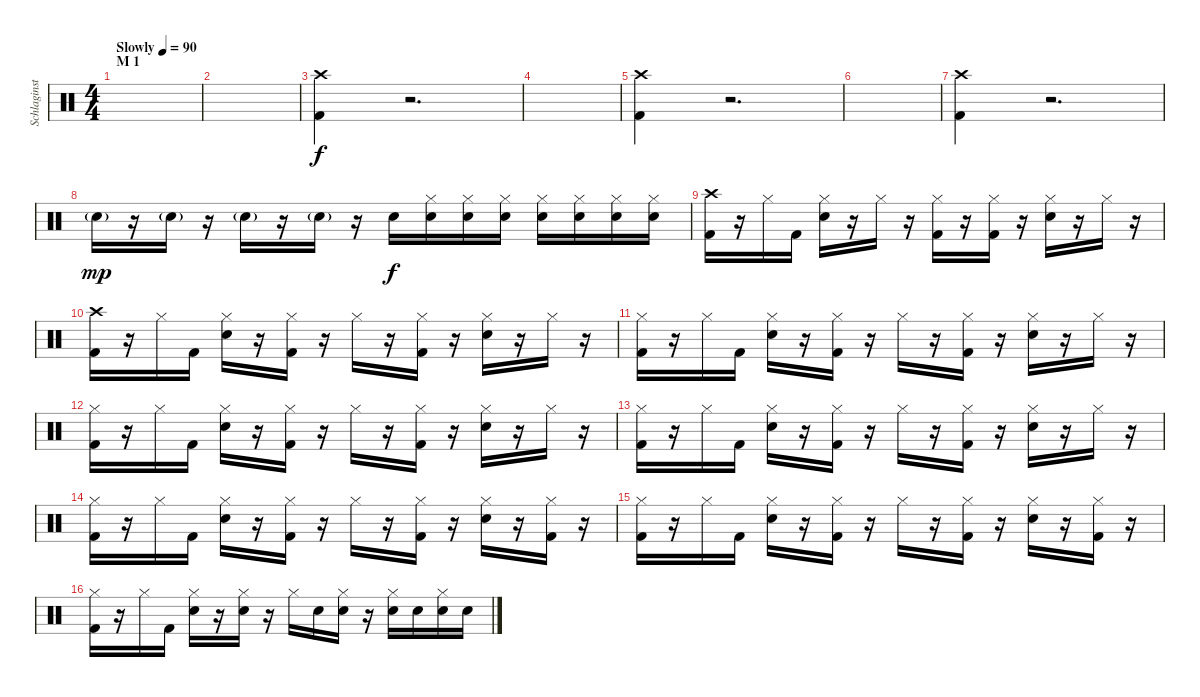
\track ("Schlaginstrumente - Auswahl" "Schlaginst") {instrument percussion}
\staff {score}
\articulation defaults
\ts (4 4)
\section ("" "M 1")
\tempo (90 "Slowly")
\clef neutral
\ks c
|
|
("Crash high (hit)" "Kick (hit) 2").4 r.2{d} |
|
("Crash high (hit)" "Kick (hit) 2").4 r.2{d} |
|
("Crash high (hit)" "Kick (hit) 2").4 r.2{d} |
"Snare (hit) 2"{g}.16{dy mp} r.16 "Snare (hit) 2"{g}.16 r.16 "Snare (hit) 2"{g}.16 r.16 "Snare (hit) 2"{g}.16 r.16 "Snare (hit) 2".16{dy f} ("Hi-Hat (closed)" "Snare (hit) 2").16 ("Hi-Hat (closed)" "Snare (hit) 2").16 ("Hi-Hat (closed)" "Snare (hit) 2").16 ("Hi-Hat (closed)" "Snare (hit) 2").16 ("Hi-Hat (closed)" "Snare (hit) 2").16 ("Hi-Hat (closed)" "Snare (hit) 2").16 ("Hi-Hat (closed)" "Snare (hit) 2").16 |
("Crash high (hit)" "Kick (hit) 2").16 r.16 "Hi-Hat (closed)".16 "Kick (hit) 2".16 ("Hi-Hat (closed)" "Snare (hit) 2").16 r.16 "Hi-Hat (closed)".16 r.16 ("Hi-Hat (closed)" "Kick (hit) 2").16 r.16 ("Hi-Hat (closed)" "Kick (hit) 2").16 r.16 ("Hi-Hat (closed)" "Snare (hit) 2").16 r.16 "Hi-Hat (closed)".16 r.16 |
("Crash high (hit)" "Kick (hit) 2").16 r.16 "Hi-Hat (closed)".16 "Kick (hit) 2".16 ("Hi-Hat (closed)" "Snare (hit) 2").16 r.16 ("Hi-Hat (closed)" "Kick (hit) 2").16 r.16 "Hi-Hat (closed)".16 r.16 ("Hi-Hat (closed)" "Kick (hit) 2").16 r.16 ("Hi-Hat (closed)" "Snare (hit) 2").16 r.16 "Hi-Hat (closed)".16 r.16 |
("Hi-Hat (closed)" "Kick (hit) 2").16 r.16 "Hi-Hat (closed)".16 "Kick (hit) 2".16 ("Hi-Hat (closed)" "Snare (hit) 2").16 r.16 ("Hi-Hat (closed)" "Kick (hit) 2").16 r.16 "Hi-Hat (closed)".16 r.16 ("Hi-Hat (closed)" "Kick (hit) 2").16 r.16 ("Hi-Hat (closed)" "Snare (hit) 2").16 r.16 "Hi-Hat (closed)".16 r.16 |
("Hi-Hat (closed)" "Kick (hit) 2").16 r.16 "Hi-Hat (closed)".16 "Kick (hit) 2".16 ("Hi-Hat (closed)" "Snare (hit) 2").16 r.16 ("Hi-Hat (closed)" "Kick (hit) 2").16 r.16 "Hi-Hat (closed)".16 r.16 ("Hi-Hat (closed)" "Kick (hit) 2").16 r.16 ("Hi-Hat (closed)" "Snare (hit) 2").16 r.16 "Hi-Hat (closed)".16 r.16 |
("Hi-Hat (closed)" "Kick (hit) 2").16 r.16 "Hi-Hat (closed)".16 "Kick (hit) 2".16 ("Hi-Hat (closed)" "Snare (hit) 2").16 r.16 ("Hi-Hat (closed)" "Kick (hit) 2").16 r.16 "Hi-Hat (closed)".16 r.16 ("Hi-Hat (closed)" "Kick (hit) 2").16 r.16 ("Hi-Hat (closed)" "Snare (hit) 2").16 r.16 "Hi-Hat (closed)".16 r.16 |
("Hi-Hat (closed)" "Kick (hit) 2").16 r.16 "Hi-Hat (closed)".16 "Kick (hit) 2".16 ("Hi-Hat (closed)" "Snare (hit) 2").16 r.16 ("Hi-Hat (closed)" "Kick (hit) 2").16 r.16 "Hi-Hat (closed)".16 r.16 ("Hi-Hat (closed)" "Kick (hit) 2").16 r.16 ("Hi-Hat (closed)" "Snare (hit) 2").16 r.16 ("Hi-Hat (closed)" "Kick (hit) 2").16 r.16 |
("Hi-Hat (closed)" "Kick (hit) 2").16 r.16 "Hi-Hat (closed)".16 "Kick (hit) 2".16 ("Hi-Hat (closed)" "Snare (hit) 2").16 r.16 ("Hi-Hat (closed)" "Kick (hit) 2").16 r.16 "Hi-Hat (closed)".16 r.16 ("Hi-Hat (closed)" "Kick (hit) 2").16 r.16 ("Hi-Hat (closed)" "Snare (hit) 2").16 r.16 ("Hi-Hat (closed)" "Kick (hit) 2").16 r.16 |
("Hi-Hat (closed)" "Kick (hit) 2").16 r.16 "Hi-Hat (closed)".16 "Kick (hit) 2".16 ("Hi-Hat (closed)" "Snare (hit) 2").16 r.16 ("Hi-Hat (closed)" "Snare (hit) 2").16 r.16 "Hi-Hat (closed)".16 "Snare (hit) 2".16 ("Hi-Hat (closed)" "Snare (hit) 2").16 r.16 ("Hi-Hat (closed)" "Snare (hit) 2").16 "Snare (hit) 2".16 ("Hi-Hat (closed)" "Snare (hit) 2").16 "Snare (hit) 2".16
